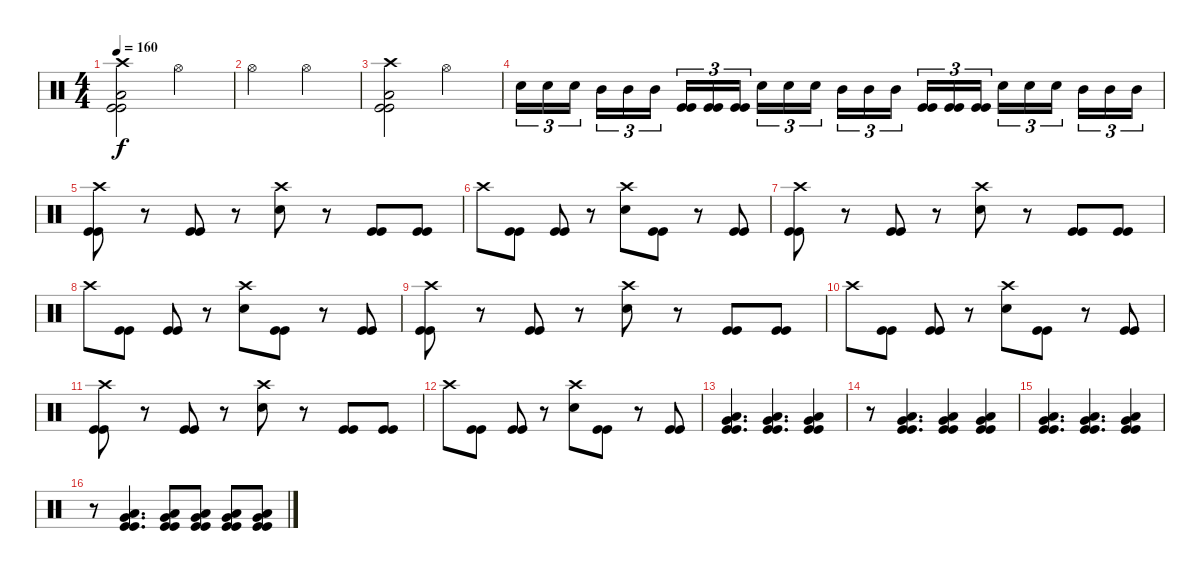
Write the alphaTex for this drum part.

\track ("  " "  ") {instrument percussion}
\staff {score}
\articulation defaults
\ts (4 4)
\tempo 160
\clef neutral
\ks c
("Crash high (hit)" "Low Floor Tom (hit)" "Kick (hit)" "Kick (hit)").2{dy f} "Hi-Hat (open)".2 |
"Hi-Hat (open)".2 "Hi-Hat (open)".2 |
("Crash high (hit)" "Low Floor Tom (hit)" "Kick (hit)" "Kick (hit)").2 "Hi-Hat (open)".2 |
"Electric Snare (hit)".16{tu (3 2)} "Electric Snare (hit)".16{tu (3 2)} "Electric Snare (hit)".16{tu (3 2) beam splitsecondary} "Mid Tom (hit)".16{tu (3 2)} "Mid Tom (hit)".16{tu (3 2)} "Mid Tom (hit)".16{tu (3 2)} ("Kick (hit)" "Kick (hit)").16{tu (3 2)} ("Kick (hit)" "Kick (hit)").16{tu (3 2)} ("Kick (hit)" "Kick (hit)").16{tu (3 2) beam splitsecondary} "Electric Snare (hit)".16{tu (3 2)} "Electric Snare (hit)".16{tu (3 2)} "Electric Snare (hit)".16{tu (3 2)} "Mid Tom (hit)".16{tu (3 2)} "Mid Tom (hit)".16{tu (3 2)} "Mid Tom (hit)".16{tu (3 2) beam splitsecondary} ("Kick (hit)" "Kick (hit)").16{tu (3 2)} ("Kick (hit)" "Kick (hit)").16{tu (3 2)} ("Kick (hit)" "Kick (hit)").16{tu (3 2)} "Electric Snare (hit)".16{tu (3 2)} "Electric Snare (hit)".16{tu (3 2)} "Electric Snare (hit)".16{tu (3 2) beam splitsecondary} "Mid Tom (hit)".16{tu (3 2)} "Mid Tom (hit)".16{tu (3 2)} "Mid Tom (hit)".16{tu (3 2)} |
("Crash high (hit)" "Kick (hit)" "Kick (hit)").8 r.8 ("Kick (hit)" "Kick (hit)").8 r.8 ("Crash high (hit)" "Electric Snare (hit)").8 r.8 ("Kick (hit)" "Kick (hit)").8 ("Kick (hit)" "Kick (hit)").8 |
"Crash high (hit)".8 ("Kick (hit)" "Kick (hit)").8 ("Kick (hit)" "Kick (hit)").8 r.8 ("Crash high (hit)" "Electric Snare (hit)").8 ("Kick (hit)" "Kick (hit)").8 r.8 ("Kick (hit)" "Kick (hit)").8 |
("Crash high (hit)" "Kick (hit)" "Kick (hit)").8 r.8 ("Kick (hit)" "Kick (hit)").8 r.8 ("Crash high (hit)" "Electric Snare (hit)").8 r.8 ("Kick (hit)" "Kick (hit)").8 ("Kick (hit)" "Kick (hit)").8 |
"Crash high (hit)".8 ("Kick (hit)" "Kick (hit)").8 ("Kick (hit)" "Kick (hit)").8 r.8 ("Crash high (hit)" "Electric Snare (hit)").8 ("Kick (hit)" "Kick (hit)").8 r.8 ("Kick (hit)" "Kick (hit)").8 |
("Crash high (hit)" "Kick (hit)" "Kick (hit)").8 r.8 ("Kick (hit)" "Kick (hit)").8 r.8 ("Crash high (hit)" "Electric Snare (hit)").8 r.8 ("Kick (hit)" "Kick (hit)").8 ("Kick (hit)" "Kick (hit)").8 |
"Crash high (hit)".8 ("Kick (hit)" "Kick (hit)").8 ("Kick (hit)" "Kick (hit)").8 r.8 ("Crash high (hit)" "Electric Snare (hit)").8 ("Kick (hit)" "Kick (hit)").8 r.8 ("Kick (hit)" "Kick (hit)").8 |
("Crash high (hit)" "Kick (hit)" "Kick (hit)").8 r.8 ("Kick (hit)" "Kick (hit)").8 r.8 ("Crash high (hit)" "Electric Snare (hit)").8 r.8 ("Kick (hit)" "Kick (hit)").8 ("Kick (hit)" "Kick (hit)").8 |
"Crash high (hit)".8 ("Kick (hit)" "Kick (hit)").8 ("Kick (hit)" "Kick (hit)").8 r.8 ("Crash high (hit)" "Electric Snare (hit)").8 ("Kick (hit)" "Kick (hit)").8 r.8 ("Kick (hit)" "Kick (hit)").8 |
("Low Floor Tom (hit)" "Very Low Tom (hit)" "Kick (hit)" "Kick (hit)").4{d} ("Low Floor Tom (hit)" "Very Low Tom (hit)" "Kick (hit)" "Kick (hit)").4{d} ("Low Floor Tom (hit)" "Very Low Tom (hit)" "Kick (hit)" "Kick (hit)").4 |
r.8 ("Low Floor Tom (hit)" "Very Low Tom (hit)" "Kick (hit)" "Kick (hit)").4{d} ("Low Floor Tom (hit)" "Very Low Tom (hit)" "Kick (hit)" "Kick (hit)").4 ("Low Floor Tom (hit)" "Very Low Tom (hit)" "Kick (hit)" "Kick (hit)").4 |
("Low Floor Tom (hit)" "Very Low Tom (hit)" "Kick (hit)" "Kick (hit)").4{d} ("Low Floor Tom (hit)" "Very Low Tom (hit)" "Kick (hit)" "Kick (hit)").4{d} ("Low Floor Tom (hit)" "Very Low Tom (hit)" "Kick (hit)" "Kick (hit)").4 |
r.8 ("Low Floor Tom (hit)" "Very Low Tom (hit)" "Kick (hit)" "Kick (hit)").4{d} ("Low Floor Tom (hit)" "Very Low Tom (hit)" "Kick (hit)" "Kick (hit)").8 ("Low Floor Tom (hit)" "Very Low Tom (hit)" "Kick (hit)" "Kick (hit)").8 ("Low Floor Tom (hit)" "Very Low Tom (hit)" "Kick (hit)" "Kick (hit)").8 ("Low Floor Tom (hit)" "Very Low Tom (hit)" "Kick (hit)" "Kick (hit)").8
